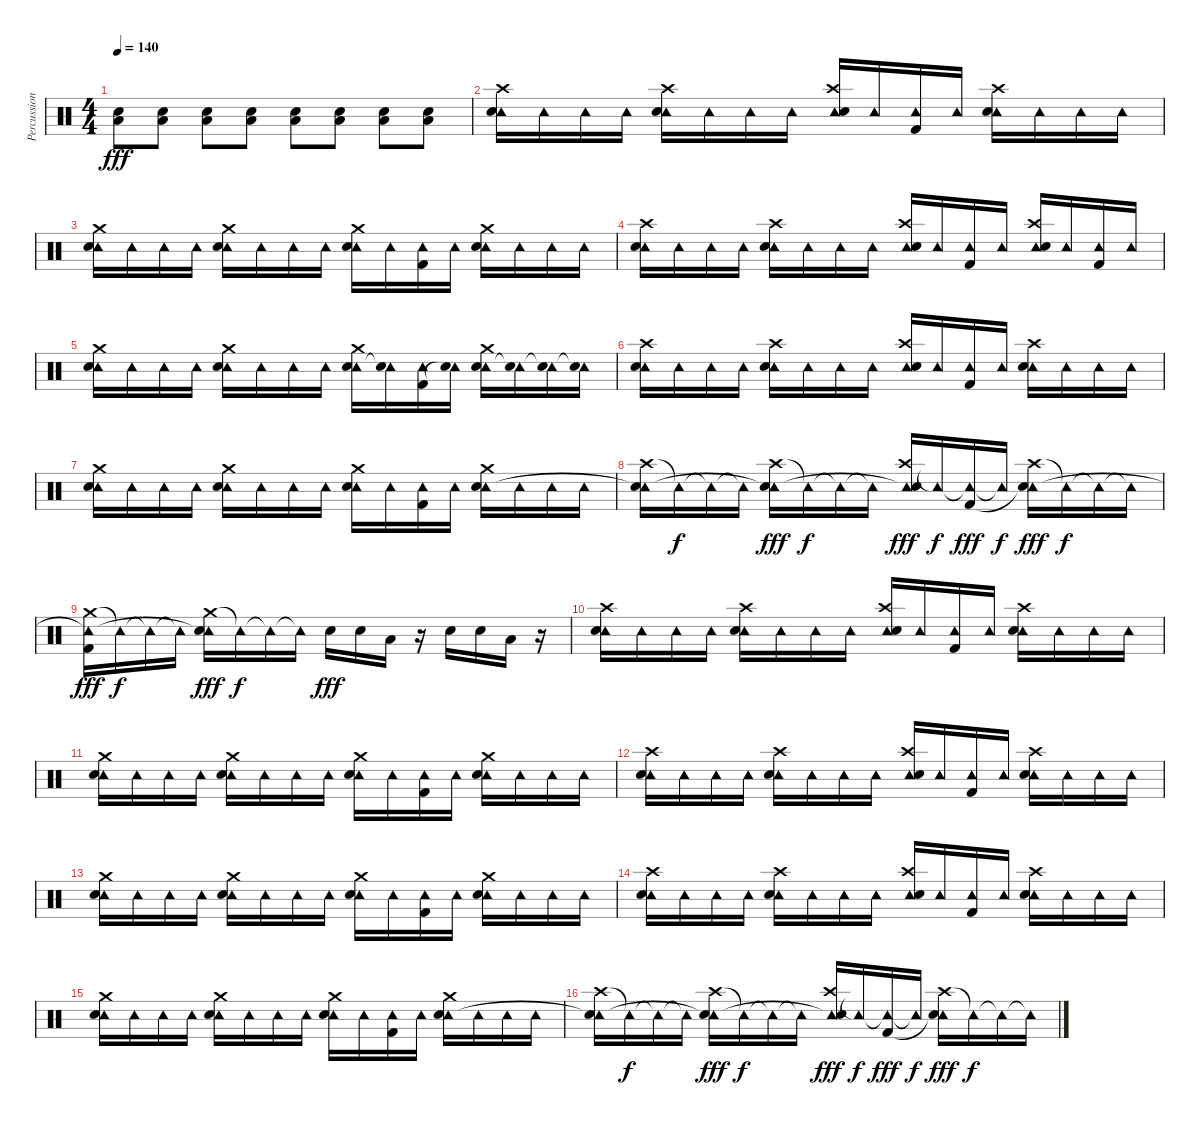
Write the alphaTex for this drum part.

\track ("Percussion" "Percussion") {instrument percussion}
\staff {score}
\articulation defaults
\ts (4 4)
\tempo 140
\clef neutral
\ks c
("Electric Snare (hit)" "Low Floor Tom (hit)").8{dy fff} ("Electric Snare (hit)" "Low Floor Tom (hit)").8 ("Electric Snare (hit)" "Low Floor Tom (hit)").8 ("Electric Snare (hit)" "Low Floor Tom (hit)").8 ("Electric Snare (hit)" "Low Floor Tom (hit)").8 ("Electric Snare (hit)" "Low Floor Tom (hit)").8 ("Electric Snare (hit)" "Low Floor Tom (hit)").8 ("Electric Snare (hit)" "Low Floor Tom (hit)").8 |
("Crash high (hit)" "Tambourine (hit)" "Electric Snare (hit)").16 "Tambourine (hit)".16 "Tambourine (hit)".16 "Tambourine (hit)".16 ("Crash high (hit)" "Tambourine (hit)" "Electric Snare (hit)").16 "Tambourine (hit)".16 "Tambourine (hit)".16 "Tambourine (hit)".16 ("Crash high (hit)" "Tambourine (hit)" "Electric Snare (hit)").16 "Tambourine (hit)".16 ("Tambourine (hit)" "Kick (hit) 2").16 "Tambourine (hit)".16 ("Crash high (hit)" "Tambourine (hit)" "Electric Snare (hit)").16 "Tambourine (hit)".16 "Tambourine (hit)".16 "Tambourine (hit)".16 |
("Crash medium (hit)" "Tambourine (hit)" "Electric Snare (hit)").16 "Tambourine (hit)".16 "Tambourine (hit)".16 "Tambourine (hit)".16 ("Crash medium (hit)" "Tambourine (hit)" "Electric Snare (hit)").16 "Tambourine (hit)".16 "Tambourine (hit)".16 "Tambourine (hit)".16 ("Crash medium (hit)" "Tambourine (hit)" "Electric Snare (hit)").16 "Tambourine (hit)".16 ("Tambourine (hit)" "Kick (hit) 2").16 "Tambourine (hit)".16 ("Crash medium (hit)" "Tambourine (hit)" "Electric Snare (hit)").16 "Tambourine (hit)".16 "Tambourine (hit)".16 "Tambourine (hit)".16 |
("Crash high (hit)" "Tambourine (hit)" "Electric Snare (hit)").16 "Tambourine (hit)".16 "Tambourine (hit)".16 "Tambourine (hit)".16 ("Crash high (hit)" "Tambourine (hit)" "Electric Snare (hit)").16 "Tambourine (hit)".16 "Tambourine (hit)".16 "Tambourine (hit)".16 ("Crash high (hit)" "Tambourine (hit)" "Electric Snare (hit)").16 "Tambourine (hit)".16 ("Tambourine (hit)" "Kick (hit) 2").16 "Tambourine (hit)".16 ("Crash high (hit)" "Tambourine (hit)" "Electric Snare (hit)").16 "Tambourine (hit)".16 ("Tambourine (hit)" "Kick (hit) 2").16 "Tambourine (hit)".16 |
("Crash medium (hit)" "Tambourine (hit)" "Electric Snare (hit)").16 "Tambourine (hit)".16 "Tambourine (hit)".16 "Tambourine (hit)".16 ("Crash medium (hit)" "Tambourine (hit)" "Electric Snare (hit)").16 "Tambourine (hit)".16 "Tambourine (hit)".16 "Tambourine (hit)".16 ("Crash medium (hit)" "Tambourine (hit)" "Electric Snare (hit)").16 ("Tambourine (hit)" "Electric Snare (hit)"{t}).16 ("Tambourine (hit)" "Kick (hit) 2").16 ("Tambourine (hit)" "Snare (hit)"{t}).16 ("Crash medium (hit)" "Tambourine (hit)" "Electric Snare (hit)").16 ("Tambourine (hit)" "Electric Snare (hit)"{t}).16 ("Tambourine (hit)" "Electric Snare (hit)"{t}).16 ("Tambourine (hit)" "Snare (hit)"{t}).16 |
("Crash high (hit)" "Tambourine (hit)" "Electric Snare (hit)").16 "Tambourine (hit)".16 "Tambourine (hit)".16 "Tambourine (hit)".16 ("Crash high (hit)" "Tambourine (hit)" "Electric Snare (hit)").16 "Tambourine (hit)".16 "Tambourine (hit)".16 "Tambourine (hit)".16 ("Crash high (hit)" "Tambourine (hit)" "Electric Snare (hit)").16 "Tambourine (hit)".16 ("Tambourine (hit)" "Kick (hit) 2").16 "Tambourine (hit)".16 ("Crash high (hit)" "Tambourine (hit)" "Electric Snare (hit)").16 "Tambourine (hit)".16 "Tambourine (hit)".16 "Tambourine (hit)".16 |
("Crash medium (hit)" "Tambourine (hit)" "Electric Snare (hit)").16 "Tambourine (hit)".16 "Tambourine (hit)".16 "Tambourine (hit)".16 ("Crash medium (hit)" "Tambourine (hit)" "Electric Snare (hit)").16 "Tambourine (hit)".16 "Tambourine (hit)".16 "Tambourine (hit)".16 ("Crash medium (hit)" "Tambourine (hit)" "Electric Snare (hit)").16 "Tambourine (hit)".16 ("Tambourine (hit)" "Kick (hit) 2").16 "Tambourine (hit)".16 ("Crash medium (hit)" "Tambourine (hit)" "Electric Snare (hit)").16 "Tambourine (hit)".16 "Tambourine (hit)".16 "Tambourine (hit)".16 |
("Crash high (hit)" "Tambourine (hit)"{t} "Electric Snare (hit)").16 "Tambourine (hit)"{t}.16{dy f} "Tambourine (hit)"{t}.16 "Tambourine (hit)"{t}.16 ("Crash high (hit)" "Tambourine (hit)"{t} "Electric Snare (hit)").16{dy fff} "Tambourine (hit)"{t}.16{dy f} "Tambourine (hit)"{t}.16 "Tambourine (hit)"{t}.16 ("Crash high (hit)" "Tambourine (hit)"{t} "Electric Snare (hit)").16{dy fff} "Tambourine (hit)"{t}.16{dy f} ("Tambourine (hit)"{t} "Kick (hit) 2").16{dy fff} "Tambourine (hit)"{t}.16{dy f} ("Crash high (hit)" "Tambourine (hit)"{t} "Electric Snare (hit)").16{dy fff} "Tambourine (hit)"{t}.16{dy f} "Tambourine (hit)"{t}.16 "Tambourine (hit)"{t}.16 |
("Crash medium (hit)" "Tambourine (hit)"{t} "Kick (hit) 2").16{dy fff} "Tambourine (hit)"{t}.16{dy f} "Tambourine (hit)"{t}.16 "Tambourine (hit)"{t}.16 ("Crash medium (hit)" "Tambourine (hit)"{t} "Electric Snare (hit)").16{dy fff} "Tambourine (hit)"{t}.16{dy f} "Tambourine (hit)"{t}.16 "Tambourine (hit)"{t}.16 "Electric Snare (hit)".16{dy fff} "Electric Snare (hit)".16 "Low Floor Tom (hit)".16 r.16 "Electric Snare (hit)".16 "Electric Snare (hit)".16 "Low Floor Tom (hit)".16 r.16 |
("Crash high (hit)" "Tambourine (hit)" "Electric Snare (hit)").16 "Tambourine (hit)".16 "Tambourine (hit)".16 "Tambourine (hit)".16 ("Crash high (hit)" "Tambourine (hit)" "Electric Snare (hit)").16 "Tambourine (hit)".16 "Tambourine (hit)".16 "Tambourine (hit)".16 ("Crash high (hit)" "Tambourine (hit)" "Electric Snare (hit)").16 "Tambourine (hit)".16 ("Tambourine (hit)" "Kick (hit) 2").16 "Tambourine (hit)".16 ("Crash high (hit)" "Tambourine (hit)" "Electric Snare (hit)").16 "Tambourine (hit)".16 "Tambourine (hit)".16 "Tambourine (hit)".16 |
("Crash medium (hit)" "Tambourine (hit)" "Electric Snare (hit)").16 "Tambourine (hit)".16 "Tambourine (hit)".16 "Tambourine (hit)".16 ("Crash medium (hit)" "Tambourine (hit)" "Electric Snare (hit)").16 "Tambourine (hit)".16 "Tambourine (hit)".16 "Tambourine (hit)".16 ("Crash medium (hit)" "Tambourine (hit)" "Electric Snare (hit)").16 "Tambourine (hit)".16 ("Tambourine (hit)" "Kick (hit) 2").16 "Tambourine (hit)".16 ("Crash medium (hit)" "Tambourine (hit)" "Electric Snare (hit)").16 "Tambourine (hit)".16 "Tambourine (hit)".16 "Tambourine (hit)".16 |
("Crash high (hit)" "Tambourine (hit)" "Electric Snare (hit)").16 "Tambourine (hit)".16 "Tambourine (hit)".16 "Tambourine (hit)".16 ("Crash high (hit)" "Tambourine (hit)" "Electric Snare (hit)").16 "Tambourine (hit)".16 "Tambourine (hit)".16 "Tambourine (hit)".16 ("Crash high (hit)" "Tambourine (hit)" "Electric Snare (hit)").16 "Tambourine (hit)".16 ("Tambourine (hit)" "Kick (hit) 2").16 "Tambourine (hit)".16 ("Crash high (hit)" "Tambourine (hit)" "Electric Snare (hit)").16 "Tambourine (hit)".16 "Tambourine (hit)".16 "Tambourine (hit)".16 |
("Crash medium (hit)" "Tambourine (hit)" "Electric Snare (hit)").16 "Tambourine (hit)".16 "Tambourine (hit)".16 "Tambourine (hit)".16 ("Crash medium (hit)" "Tambourine (hit)" "Electric Snare (hit)").16 "Tambourine (hit)".16 "Tambourine (hit)".16 "Tambourine (hit)".16 ("Crash medium (hit)" "Tambourine (hit)" "Electric Snare (hit)").16 "Tambourine (hit)".16 ("Tambourine (hit)" "Kick (hit) 2").16 "Tambourine (hit)".16 ("Crash medium (hit)" "Tambourine (hit)" "Electric Snare (hit)").16 "Tambourine (hit)".16 "Tambourine (hit)".16 "Tambourine (hit)".16 |
("Crash high (hit)" "Tambourine (hit)" "Electric Snare (hit)").16 "Tambourine (hit)".16 "Tambourine (hit)".16 "Tambourine (hit)".16 ("Crash high (hit)" "Tambourine (hit)" "Electric Snare (hit)").16 "Tambourine (hit)".16 "Tambourine (hit)".16 "Tambourine (hit)".16 ("Crash high (hit)" "Tambourine (hit)" "Electric Snare (hit)").16 "Tambourine (hit)".16 ("Tambourine (hit)" "Kick (hit) 2").16 "Tambourine (hit)".16 ("Crash high (hit)" "Tambourine (hit)" "Electric Snare (hit)").16 "Tambourine (hit)".16 "Tambourine (hit)".16 "Tambourine (hit)".16 |
("Crash medium (hit)" "Tambourine (hit)" "Electric Snare (hit)").16 "Tambourine (hit)".16 "Tambourine (hit)".16 "Tambourine (hit)".16 ("Crash medium (hit)" "Tambourine (hit)" "Electric Snare (hit)").16 "Tambourine (hit)".16 "Tambourine (hit)".16 "Tambourine (hit)".16 ("Crash medium (hit)" "Tambourine (hit)" "Electric Snare (hit)").16 "Tambourine (hit)".16 ("Tambourine (hit)" "Kick (hit) 2").16 "Tambourine (hit)".16 ("Crash medium (hit)" "Tambourine (hit)" "Electric Snare (hit)").16 "Tambourine (hit)".16 "Tambourine (hit)".16 "Tambourine (hit)".16 |
("Crash high (hit)" "Tambourine (hit)"{t} "Electric Snare (hit)").16 "Tambourine (hit)"{t}.16{dy f} "Tambourine (hit)"{t}.16 "Tambourine (hit)"{t}.16 ("Crash high (hit)" "Tambourine (hit)"{t} "Electric Snare (hit)").16{dy fff} "Tambourine (hit)"{t}.16{dy f} "Tambourine (hit)"{t}.16 "Tambourine (hit)"{t}.16 ("Crash high (hit)" "Tambourine (hit)"{t} "Electric Snare (hit)").16{dy fff} "Tambourine (hit)"{t}.16{dy f} ("Tambourine (hit)"{t} "Kick (hit) 2").16{dy fff} "Tambourine (hit)"{t}.16{dy f} ("Crash high (hit)" "Tambourine (hit)"{t} "Electric Snare (hit)").16{dy fff} "Tambourine (hit)"{t}.16{dy f} "Tambourine (hit)"{t}.16 "Tambourine (hit)"{t}.16
